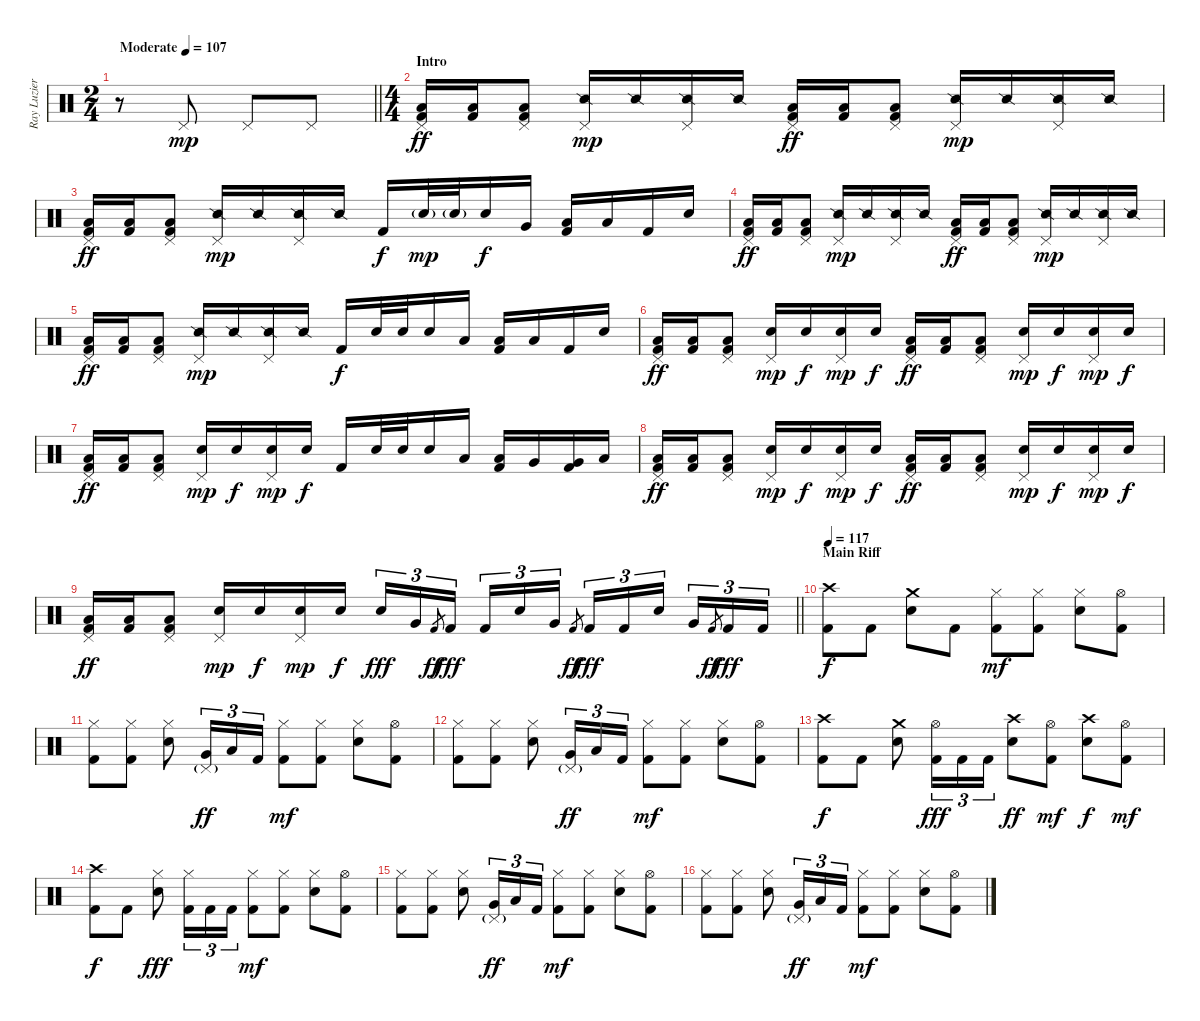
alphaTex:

\track ("Ray Luzier" "Ray Luzier") {instrument percussion}
\staff {score}
\articulation defaults
\ts (2 4)
\tempo (107 "Moderate")
\clef neutral
\barLineRight lightlight
\ks c
r.8{dy mp} "Pedal Hi-Hat (hit)".8 "Pedal Hi-Hat (hit)".8 "Pedal Hi-Hat (hit)".8 |
\ts (4 4)
\section ("" "Intro")
("Pedal Hi-Hat (hit)" "Low Floor Tom (hit)" "Kick (hit) 2").16{dy ff} ("Low Floor Tom (hit)" "Kick (hit) 2").16 ("Pedal Hi-Hat (hit)" "Low Floor Tom (hit)" "Kick (hit) 2").8 ("Pedal Hi-Hat (hit)" "Snare (side stick) 2").16{dy mp} "Snare (side stick) 2".16 ("Pedal Hi-Hat (hit)" "Snare (side stick) 2").16 "Snare (side stick) 2".16 ("Pedal Hi-Hat (hit)" "Low Floor Tom (hit)" "Kick (hit) 2").16{dy ff} ("Low Floor Tom (hit)" "Kick (hit) 2").16 ("Pedal Hi-Hat (hit)" "Low Floor Tom (hit)" "Kick (hit) 2").8 ("Pedal Hi-Hat (hit)" "Snare (side stick) 2").16{dy mp} "Snare (side stick) 2".16 ("Pedal Hi-Hat (hit)" "Snare (side stick) 2").16 "Snare (side stick) 2".16 |
("Pedal Hi-Hat (hit)" "Low Floor Tom (hit)" "Kick (hit) 2").16{dy ff} ("Low Floor Tom (hit)" "Kick (hit) 2").16 ("Pedal Hi-Hat (hit)" "Low Floor Tom (hit)" "Kick (hit) 2").8 ("Pedal Hi-Hat (hit)" "Snare (side stick) 2").16{dy mp} "Snare (side stick) 2".16 ("Pedal Hi-Hat (hit)" "Snare (side stick) 2").16 "Snare (side stick) 2".16 "Kick (hit) 2".16{dy f} "Snare (hit) 2"{g}.32{dy mp} "Snare (hit) 2"{g}.32 "Snare (hit) 2".16{dy f} "Very Low Tom (hit)".16 ("Low Floor Tom (hit)" "Kick (hit) 2").16 "Low Tom (hit)".16 "Kick (hit) 2".16 "Snare (hit) 2".16 |
("Pedal Hi-Hat (hit)" "Low Floor Tom (hit)" "Kick (hit) 2").16{dy ff} ("Low Floor Tom (hit)" "Kick (hit) 2").16 ("Pedal Hi-Hat (hit)" "Low Floor Tom (hit)" "Kick (hit) 2").8 ("Pedal Hi-Hat (hit)" "Snare (side stick) 2").16{dy mp} "Snare (side stick) 2".16 ("Pedal Hi-Hat (hit)" "Snare (side stick) 2").16 "Snare (side stick) 2".16 ("Pedal Hi-Hat (hit)" "Low Floor Tom (hit)" "Kick (hit) 2").16{dy ff} ("Low Floor Tom (hit)" "Kick (hit) 2").16 ("Pedal Hi-Hat (hit)" "Low Floor Tom (hit)" "Kick (hit) 2").8 ("Pedal Hi-Hat (hit)" "Snare (side stick) 2").16{dy mp} "Snare (side stick) 2".16 ("Pedal Hi-Hat (hit)" "Snare (side stick) 2").16 "Snare (side stick) 2".16 |
("Pedal Hi-Hat (hit)" "Low Floor Tom (hit)" "Kick (hit) 2").16{dy ff} ("Low Floor Tom (hit)" "Kick (hit) 2").16 ("Pedal Hi-Hat (hit)" "Low Floor Tom (hit)" "Kick (hit) 2").8 ("Pedal Hi-Hat (hit)" "Snare (side stick) 2").16{dy mp} "Snare (side stick) 2".16 ("Pedal Hi-Hat (hit)" "Snare (side stick) 2").16 "Snare (side stick) 2".16 "Kick (hit) 2".16{dy f} "Snare (hit) 2".32 "Snare (hit) 2".32 "Snare (hit) 2".16 "Low Floor Tom (hit)".16 ("Low Floor Tom (hit)" "Kick (hit) 2").16 "Low Tom (hit)".16 "Kick (hit) 2".16 "Snare (hit) 2".16 |
("Pedal Hi-Hat (hit)" "Low Floor Tom (hit)" "Kick (hit) 2").16{dy ff} ("Low Floor Tom (hit)" "Kick (hit) 2").16 ("Pedal Hi-Hat (hit)" "Low Floor Tom (hit)" "Kick (hit) 2").8 ("Pedal Hi-Hat (hit)" "Snare (hit) 2").16{dy mp} "Snare (hit) 2".16{dy f} ("Pedal Hi-Hat (hit)" "Snare (hit) 2").16{dy mp} "Snare (hit) 2".16{dy f} ("Pedal Hi-Hat (hit)" "Low Floor Tom (hit)" "Kick (hit) 2").16{dy ff} ("Low Floor Tom (hit)" "Kick (hit) 2").16 ("Pedal Hi-Hat (hit)" "Low Floor Tom (hit)" "Kick (hit) 2").8 ("Pedal Hi-Hat (hit)" "Snare (hit) 2").16{dy mp} "Snare (hit) 2".16{dy f} ("Pedal Hi-Hat (hit)" "Snare (hit) 2").16{dy mp} "Snare (hit) 2".16{dy f} |
("Pedal Hi-Hat (hit)" "Low Floor Tom (hit)" "Kick (hit) 2").16{dy ff} ("Low Floor Tom (hit)" "Kick (hit) 2").16 ("Pedal Hi-Hat (hit)" "Low Floor Tom (hit)" "Kick (hit) 2").8 ("Pedal Hi-Hat (hit)" "Snare (hit) 2").16{dy mp} "Snare (hit) 2".16{dy f} ("Pedal Hi-Hat (hit)" "Snare (hit) 2").16{dy mp} "Snare (hit) 2".16{dy f} "Kick (hit) 2".16 "Snare (hit) 2".32 "Snare (hit) 2".32 "Snare (hit) 2".16 "Low Floor Tom (hit)".16 ("Low Tom (hit)" "Kick (hit) 2").16 "Very Low Tom (hit)".16 ("Very Low Tom (hit)" "Kick (hit) 2").16 "Low Floor Tom (hit)".16 |
("Pedal Hi-Hat (hit)" "Low Floor Tom (hit)" "Kick (hit) 2").16{dy ff} ("Low Floor Tom (hit)" "Kick (hit) 2").16 ("Pedal Hi-Hat (hit)" "Low Floor Tom (hit)" "Kick (hit) 2").8 ("Pedal Hi-Hat (hit)" "Snare (hit) 2").16{dy mp} "Snare (hit) 2".16{dy f} ("Pedal Hi-Hat (hit)" "Snare (hit) 2").16{dy mp} "Snare (hit) 2".16{dy f} ("Pedal Hi-Hat (hit)" "Low Floor Tom (hit)" "Kick (hit) 2").16{dy ff} ("Low Floor Tom (hit)" "Kick (hit) 2").16 ("Pedal Hi-Hat (hit)" "Low Floor Tom (hit)" "Kick (hit) 2").8 ("Pedal Hi-Hat (hit)" "Snare (hit) 2").16{dy mp} "Snare (hit) 2".16{dy f} ("Pedal Hi-Hat (hit)" "Snare (hit) 2").16{dy mp} "Snare (hit) 2".16{dy f} |
\barLineRight lightlight
("Pedal Hi-Hat (hit)" "Low Floor Tom (hit)" "Kick (hit) 2").16{dy ff} ("Low Floor Tom (hit)" "Kick (hit) 2").16 ("Pedal Hi-Hat (hit)" "Low Floor Tom (hit)" "Kick (hit) 2").8 ("Pedal Hi-Hat (hit)" "Snare (hit) 2").16{dy mp} "Snare (hit) 2".16{dy f} ("Pedal Hi-Hat (hit)" "Snare (hit) 2").16{dy mp} "Snare (hit) 2".16{dy f} "Snare (hit) 2".16{tu (3 2) dy fff} "Very Low Tom (hit)".16{tu (3 2)} "Kick (hit) 2".8{gr dy ff} "Kick (hit) 2".16{tu (3 2) dy fff beam splitsecondary} "Kick (hit) 2".16{tu (3 2)} "Snare (hit) 2".16{tu (3 2)} "Very Low Tom (hit)".16{tu (3 2)} "Kick (hit) 2".8{gr dy ff} "Kick (hit) 2".16{tu (3 2) dy fff} "Kick (hit) 2".16{tu (3 2)} "Snare (hit) 2".16{tu (3 2) beam splitsecondary} "Very Low Tom (hit)".16{tu (3 2)} "Kick (hit) 2".8{gr dy ff} "Kick (hit) 2".16{tu (3 2) dy fff} "Kick (hit) 2".16{tu (3 2)} |
\section ("" "Main Riff")
\tempo 117
("Crash high (hit)" "Kick (hit) 2").8{dy f} "Kick (hit) 2".8 ("Crash medium (hit)" "Snare (hit) 2").8 "Kick (hit) 2".8 ("Hi-Hat (closed)" "Kick (hit) 2").8{dy mf} ("Hi-Hat (closed)" "Kick (hit) 2").8 ("Hi-Hat (closed)" "Snare (hit) 2").8 ("Hi-Hat (open)" "Kick (hit) 2").8 |
("Hi-Hat (closed)" "Kick (hit) 2").8 ("Hi-Hat (closed)" "Kick (hit) 2").8 ("Hi-Hat (closed)" "Snare (hit) 2").8 ("Pedal Hi-Hat (hit)"{g} "Very Low Tom (hit)").16{tu (3 2) dy ff} "Low Floor Tom (hit)".16{tu (3 2)} "Kick (hit) 2".16{tu (3 2)} ("Hi-Hat (closed)" "Kick (hit) 2").8{dy mf} ("Hi-Hat (closed)" "Kick (hit) 2").8 ("Hi-Hat (closed)" "Snare (hit) 2").8 ("Hi-Hat (open)" "Kick (hit) 2").8 |
("Hi-Hat (closed)" "Kick (hit) 2").8 ("Hi-Hat (closed)" "Kick (hit) 2").8 ("Hi-Hat (closed)" "Snare (hit) 2").8 ("Pedal Hi-Hat (hit)"{g} "Very Low Tom (hit)").16{tu (3 2) dy ff} "Low Floor Tom (hit)".16{tu (3 2)} "Kick (hit) 2".16{tu (3 2)} ("Hi-Hat (closed)" "Kick (hit) 2").8{dy mf} ("Hi-Hat (closed)" "Kick (hit) 2").8 ("Hi-Hat (closed)" "Snare (hit) 2").8 ("Hi-Hat (open)" "Kick (hit) 2").8 |
("Crash high (hit)" "Kick (hit) 2").8{dy f} "Kick (hit) 2".8 ("Crash medium (hit)" "Snare (hit) 2").8 ("Hi-Hat (open)" "Kick (hit) 2").16{tu (3 2) dy fff} "Kick (hit) 2".16{tu (3 2)} "Kick (hit) 2".16{tu (3 2)} ("Crash high (hit)" "Snare (hit) 2").8{dy ff} ("Hi-Hat (open)" "Kick (hit) 2").8{dy mf} ("Crash high (hit)" "Snare (hit) 2").8{dy f} ("Hi-Hat (open)" "Kick (hit) 2").8{dy mf} |
("Crash high (hit)" "Kick (hit) 2").8{dy f} "Kick (hit) 2".8 ("Hi-Hat (closed)" "Snare (hit) 2").8{dy fff} ("Hi-Hat (closed)" "Kick (hit) 2").16{tu (3 2)} "Kick (hit) 2".16{tu (3 2)} "Kick (hit) 2".16{tu (3 2)} ("Hi-Hat (closed)" "Kick (hit) 2").8{dy mf} ("Hi-Hat (closed)" "Kick (hit) 2").8 ("Hi-Hat (closed)" "Snare (hit) 2").8 ("Hi-Hat (open)" "Kick (hit) 2").8 |
("Hi-Hat (closed)" "Kick (hit) 2").8 ("Hi-Hat (closed)" "Kick (hit) 2").8 ("Hi-Hat (closed)" "Snare (hit) 2").8 ("Pedal Hi-Hat (hit)"{g} "Very Low Tom (hit)").16{tu (3 2) dy ff} "Low Floor Tom (hit)".16{tu (3 2)} "Kick (hit) 2".16{tu (3 2)} ("Hi-Hat (closed)" "Kick (hit) 2").8{dy mf} ("Hi-Hat (closed)" "Kick (hit) 2").8 ("Hi-Hat (closed)" "Snare (hit) 2").8 ("Hi-Hat (open)" "Kick (hit) 2").8 |
("Hi-Hat (closed)" "Kick (hit) 2").8 ("Hi-Hat (closed)" "Kick (hit) 2").8 ("Hi-Hat (closed)" "Snare (hit) 2").8 ("Pedal Hi-Hat (hit)"{g} "Very Low Tom (hit)").16{tu (3 2) dy ff} "Low Floor Tom (hit)".16{tu (3 2)} "Kick (hit) 2".16{tu (3 2)} ("Hi-Hat (closed)" "Kick (hit) 2").8{dy mf} ("Hi-Hat (closed)" "Kick (hit) 2").8 ("Hi-Hat (closed)" "Snare (hit) 2").8 ("Hi-Hat (open)" "Kick (hit) 2").8
